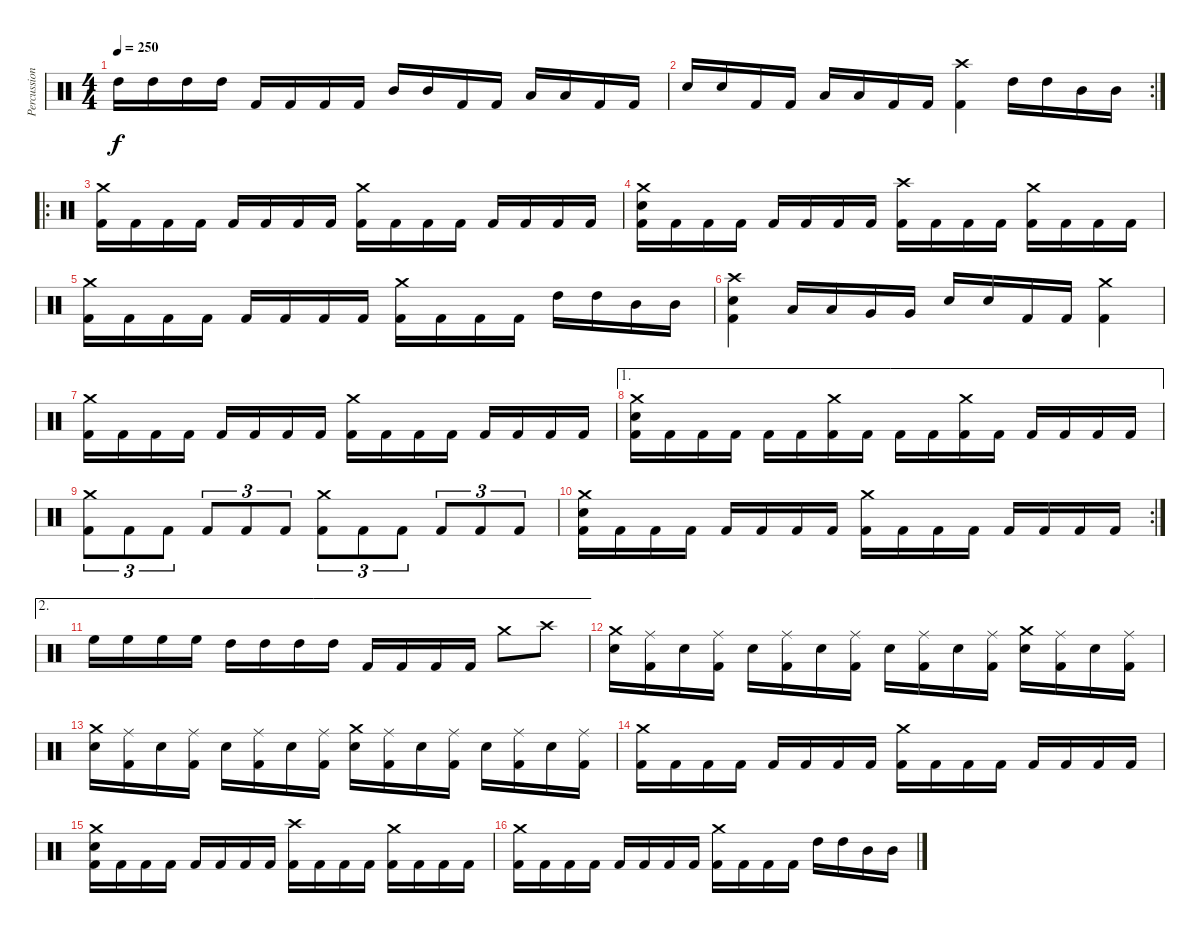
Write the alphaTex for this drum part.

\track ("Percussion" "Percussion") {instrument percussion}
\staff {score}
\articulation defaults
\ts (4 4)
\tempo 250
\clef neutral
\ks c "High Tom (hit)".16{dy f} "High Tom (hit)".16 "High Tom (hit)".16 "High Tom (hit)".16 "Kick (hit) 2".16 "Kick (hit) 2".16 "Kick (hit) 2".16 "Kick (hit) 2".16 "Mid Tom (hit)".16 "Mid Tom (hit)".16 "Kick (hit) 2".16 "Kick (hit) 2".16 "Low Tom (hit)".16 "Low Tom (hit)".16 "Kick (hit) 2".16 "Kick (hit) 2".16
|
\rc 2 "Electric Snare (hit)".16 "Electric Snare (hit)".16 "Kick (hit) 2".16 "Kick (hit) 2".16 "Low Tom (hit)".16 "Low Tom (hit)".16 "Kick (hit) 2".16 "Kick (hit) 2".16
("Crash high (hit)" "Kick (hit) 2").4 "High Tom (hit)".16 "High Tom (hit)".16 "Mid Tom (hit)".16 "Mid Tom (hit)".16 |
\ro
("Crash medium (hit)" "Kick (hit) 2").16 "Kick (hit) 2".16 "Kick (hit) 2".16 "Kick (hit) 2".16 "Kick (hit) 2".16 "Kick (hit) 2".16 "Kick (hit) 2".16 "Kick (hit) 2".16 ("Crash medium (hit)" "Kick (hit) 2").16 "Kick (hit) 2".16 "Kick (hit) 2".16 "Kick (hit) 2".16 "Kick (hit) 2".16 "Kick (hit) 2".16 "Kick (hit) 2".16 "Kick (hit) 2".16 |
("Crash medium (hit)" "Electric Snare (hit)" "Kick (hit) 2").16 "Kick (hit) 2".16 "Kick (hit) 2".16 "Kick (hit) 2".16 "Kick (hit) 2".16 "Kick (hit) 2".16 "Kick (hit) 2".16 "Kick (hit) 2".16 ("Crash high (hit)" "Kick (hit) 2").16 "Kick (hit) 2".16 "Kick (hit) 2".16 "Kick (hit) 2".16 ("Crash medium (hit)" "Kick (hit) 2").16 "Kick (hit) 2".16 "Kick (hit) 2".16 "Kick (hit) 2".16 |
("Crash medium (hit)" "Kick (hit) 2").16 "Kick (hit) 2".16 "Kick (hit) 2".16 "Kick (hit) 2".16 "Kick (hit) 2".16 "Kick (hit) 2".16 "Kick (hit) 2".16 "Kick (hit) 2".16 ("Crash medium (hit)" "Kick (hit) 2").16 "Kick (hit) 2".16 "Kick (hit) 2".16 "Kick (hit) 2".16 "High Tom (hit)".16 "High Tom (hit)".16 "Mid Tom (hit)".16 "Mid Tom (hit)".16 |
("Crash high (hit)" "Electric Snare (hit)" "Kick (hit) 2").4 "Low Tom (hit)".16 "Low Tom (hit)".16 "Very Low Tom (hit)".16 "Very Low Tom (hit)".16 "Electric Snare (hit)".16 "Electric Snare (hit)".16 "Kick (hit) 2".16 "Kick (hit) 2".16 ("Crash medium (hit)" "Kick (hit) 2").4 |
("Crash medium (hit)" "Kick (hit) 2").16 "Kick (hit) 2".16 "Kick (hit) 2".16 "Kick (hit) 2".16 "Kick (hit) 2".16 "Kick (hit) 2".16 "Kick (hit) 2".16 "Kick (hit) 2".16 ("Crash medium (hit)" "Kick (hit) 2").16 "Kick (hit) 2".16 "Kick (hit) 2".16 "Kick (hit) 2".16 "Kick (hit) 2".16 "Kick (hit) 2".16 "Kick (hit) 2".16 "Kick (hit) 2".16 |
\ae 1
("Crash medium (hit)" "Electric Snare (hit)" "Kick (hit) 2").16 "Kick (hit) 2".16 "Kick (hit) 2".16 "Kick (hit) 2".16 "Kick (hit) 2".16 "Kick (hit) 2".16 ("Crash medium (hit)" "Kick (hit) 2").16 "Kick (hit) 2".16 "Kick (hit) 2".16 "Kick (hit) 2".16 ("Crash medium (hit)" "Kick (hit) 2").16 "Kick (hit) 2".16 "Kick (hit) 2".16 "Kick (hit) 2".16 "Kick (hit) 2".16 "Kick (hit) 2".16 |
("Crash medium (hit)" "Kick (hit) 2").8{tu (3 2)} "Kick (hit) 2".8{tu (3 2)} "Kick (hit) 2".8{tu (3 2)} "Kick (hit) 2".8{tu (3 2)} "Kick (hit) 2".8{tu (3 2)} "Kick (hit) 2".8{tu (3 2)} ("Crash medium (hit)" "Kick (hit) 2").8{tu (3 2)} "Kick (hit) 2".8{tu (3 2)} "Kick (hit) 2".8{tu (3 2)} "Kick (hit) 2".8{tu (3 2)} "Kick (hit) 2".8{tu (3 2)} "Kick (hit) 2".8{tu (3 2)} |
\rc 2
("Crash medium (hit)" "Electric Snare (hit)" "Kick (hit) 2").16 "Kick (hit) 2".16 "Kick (hit) 2".16 "Kick (hit) 2".16 "Kick (hit) 2".16 "Kick (hit) 2".16 "Kick (hit) 2".16 "Kick (hit) 2".16 ("Crash medium (hit)" "Kick (hit) 2").16 "Kick (hit) 2".16 "Kick (hit) 2".16 "Kick (hit) 2".16 "Kick (hit) 2".16 "Kick (hit) 2".16 "Kick (hit) 2".16 "Kick (hit) 2".16 |
\ae 2 "High Floor Tom (hit)".16 "High Floor Tom (hit)".16 "High Floor Tom (hit)".16 "High Floor Tom (hit)".16 "High Tom (hit)".16 "High Tom (hit)".16 "High Tom (hit)".16 "High Tom (hit)".16 "Kick (hit) 2".16 "Kick (hit) 2".16 "Kick (hit) 2".16 "Kick (hit) 2".16 "Crash medium (hit)".8 "Crash high (hit)".8
|
("Crash medium (hit)" "Electric Snare (hit)").16 ("Ride (middle)" "Kick (hit) 2").16 "Electric Snare (hit)".16 ("Ride (middle)" "Kick (hit) 2").16 "Electric Snare (hit)".16 ("Ride (middle)" "Kick (hit) 2").16 "Electric Snare (hit)".16 ("Ride (middle)" "Kick (hit) 2").16 "Electric Snare (hit)".16 ("Ride (middle)" "Kick (hit) 2").16 "Electric Snare (hit)".16 ("Ride (middle)" "Kick (hit) 2").16 ("Crash medium (hit)" "Electric Snare (hit)").16 ("Ride (middle)" "Kick (hit) 2").16 "Electric Snare (hit)".16 ("Ride (middle)" "Kick (hit) 2").16 |
("Crash medium (hit)" "Electric Snare (hit)").16 ("Ride (middle)" "Kick (hit) 2").16 "Electric Snare (hit)".16 ("Ride (middle)" "Kick (hit) 2").16 "Electric Snare (hit)".16 ("Ride (middle)" "Kick (hit) 2").16 "Electric Snare (hit)".16 ("Ride (middle)" "Kick (hit) 2").16 ("Crash medium (hit)" "Electric Snare (hit)").16 ("Ride (middle)" "Kick (hit) 2").16 "Electric Snare (hit)".16 ("Ride (middle)" "Kick (hit) 2").16 "Electric Snare (hit)".16 ("Ride (middle)" "Kick (hit) 2").16 "Electric Snare (hit)".16 ("Ride (middle)" "Kick (hit) 2").16 |
("Crash medium (hit)" "Kick (hit) 2").16 "Kick (hit) 2".16 "Kick (hit) 2".16 "Kick (hit) 2".16 "Kick (hit) 2".16 "Kick (hit) 2".16 "Kick (hit) 2".16 "Kick (hit) 2".16 ("Crash medium (hit)" "Kick (hit) 2").16 "Kick (hit) 2".16 "Kick (hit) 2".16 "Kick (hit) 2".16 "Kick (hit) 2".16 "Kick (hit) 2".16 "Kick (hit) 2".16 "Kick (hit) 2".16 |
("Crash medium (hit)" "Electric Snare (hit)" "Kick (hit) 2").16 "Kick (hit) 2".16 "Kick (hit) 2".16 "Kick (hit) 2".16 "Kick (hit) 2".16 "Kick (hit) 2".16 "Kick (hit) 2".16 "Kick (hit) 2".16 ("Crash high (hit)" "Kick (hit) 2").16 "Kick (hit) 2".16 "Kick (hit) 2".16 "Kick (hit) 2".16 ("Crash medium (hit)" "Kick (hit) 2").16 "Kick (hit) 2".16 "Kick (hit) 2".16 "Kick (hit) 2".16 |
("Crash medium (hit)" "Kick (hit) 2").16 "Kick (hit) 2".16 "Kick (hit) 2".16 "Kick (hit) 2".16 "Kick (hit) 2".16 "Kick (hit) 2".16 "Kick (hit) 2".16 "Kick (hit) 2".16 ("Crash medium (hit)" "Kick (hit) 2").16 "Kick (hit) 2".16 "Kick (hit) 2".16 "Kick (hit) 2".16 "High Tom (hit)".16 "High Tom (hit)".16 "Mid Tom (hit)".16 "Mid Tom (hit)".16
